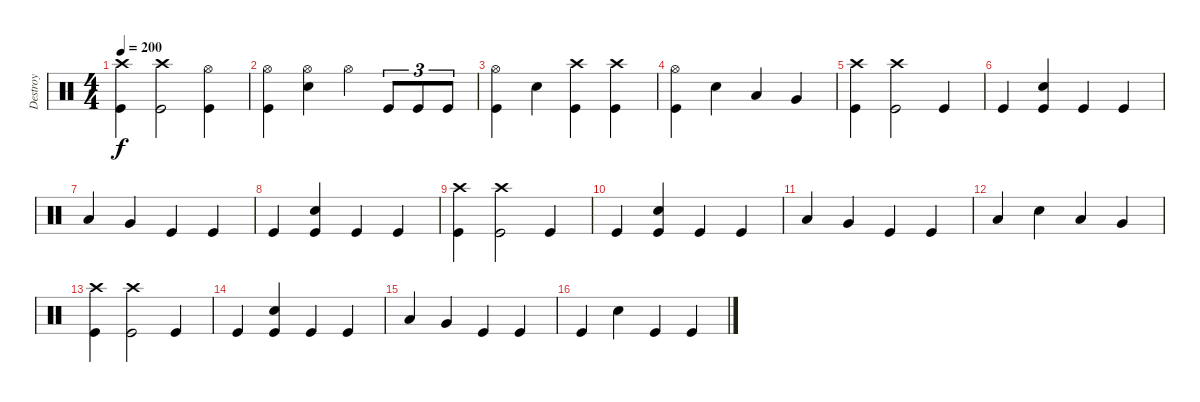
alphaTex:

\track ("Destroy" "Destroy") {instrument percussion}
\staff {score}
\articulation defaults
\ts (4 4)
\tempo 200
\clef neutral
\ks c
("Crash high (hit)" "Kick (hit)").4{dy f} ("Crash high (hit)" "Kick (hit)").2 ("Hi-Hat (open)" "Kick (hit)").4 |
("Hi-Hat (open)" "Kick (hit)").4 ("Hi-Hat (open)" "Snare (hit) 2").4 "Hi-Hat (open)".4 "Kick (hit)".8{tu (3 2)} "Kick (hit)".8{tu (3 2)} "Kick (hit)".8{tu (3 2)} |
("Hi-Hat (open)" "Kick (hit)").4 "Snare (hit) 2".4 ("Crash high (hit)" "Kick (hit)").4 ("Crash high (hit)" "Kick (hit)").4 |
("Hi-Hat (open)" "Kick (hit)").4 "Snare (hit) 2".4 "Low Tom (hit)".4 "Very Low Tom (hit)".4 |
("Crash high (hit)" "Kick (hit)").4 ("Crash high (hit)" "Kick (hit)").2 "Kick (hit)".4 |
"Kick (hit)".4 ("Snare (hit) 2" "Kick (hit)").4 "Kick (hit)".4 "Kick (hit)".4 |
"Low Tom (hit)".4 "Very Low Tom (hit)".4 "Kick (hit)".4 "Kick (hit)".4 |
"Kick (hit)".4 ("Snare (hit) 2" "Kick (hit)").4 "Kick (hit)".4 "Kick (hit)".4 |
("Crash high (hit)" "Kick (hit)").4 ("Crash high (hit)" "Kick (hit)").2 "Kick (hit)".4 |
"Kick (hit)".4 ("Snare (hit) 2" "Kick (hit)").4 "Kick (hit)".4 "Kick (hit)".4 |
"Low Tom (hit)".4 "Very Low Tom (hit)".4 "Kick (hit)".4 "Kick (hit)".4 |
"Low Tom (hit)".4 "Snare (hit) 2".4 "Low Tom (hit)".4 "Very Low Tom (hit)".4 |
("Crash high (hit)" "Kick (hit)").4 ("Crash high (hit)" "Kick (hit)").2 "Kick (hit)".4 |
"Kick (hit)".4 ("Snare (hit) 2" "Kick (hit)").4 "Kick (hit)".4 "Kick (hit)".4 |
"Low Tom (hit)".4 "Very Low Tom (hit)".4 "Kick (hit)".4 "Kick (hit)".4 |
"Kick (hit)".4 "Snare (hit) 2".4 "Kick (hit)".4 "Kick (hit)".4
